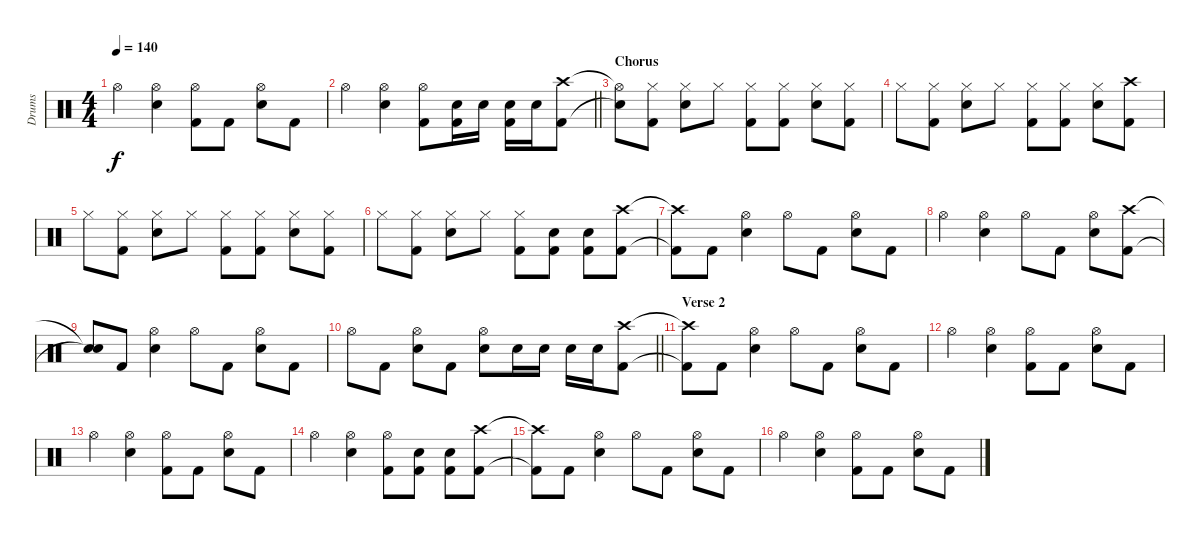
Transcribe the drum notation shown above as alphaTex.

\track ("Drums" "Drums") {instrument percussion}
\staff {score}
\articulation defaults
\ts (4 4)
\tempo 140
\clef neutral
\ks c "Hi-Hat (open)".4{dy f}
("Hi-Hat (open)" "Electric Snare (hit)").4 ("Hi-Hat (open)" "Kick (hit) 2").8 "Kick (hit) 2".8 ("Hi-Hat (open)" "Electric Snare (hit)").8 "Kick (hit) 2".8 |
\barLineRight lightlight "Hi-Hat (open)".4
("Hi-Hat (open)" "Electric Snare (hit)").4 ("Hi-Hat (open)" "Kick (hit) 2").8 ("Electric Snare (hit)" "Kick (hit) 2").16 "Electric Snare (hit)".16 ("Electric Snare (hit)" "Kick (hit) 2").16 "Electric Snare (hit)".16 ("Crash high (hit)" "Kick (hit) 2").8 |
\section ("" "Chorus")
("Hi-Hat (open)"{t} "Snare (hit)"{t}).8 ("Hi-Hat (closed)" "Kick (hit) 2").8 ("Hi-Hat (closed)" "Electric Snare (hit)").8 "Hi-Hat (closed)".8 ("Hi-Hat (closed)" "Kick (hit) 2").8 ("Hi-Hat (closed)" "Kick (hit) 2").8 ("Hi-Hat (closed)" "Electric Snare (hit)").8 ("Hi-Hat (closed)" "Kick (hit) 2").8 |
"Hi-Hat (closed)".8 ("Hi-Hat (closed)" "Kick (hit) 2").8 ("Hi-Hat (closed)" "Electric Snare (hit)").8 "Hi-Hat (closed)".8 ("Hi-Hat (closed)" "Kick (hit) 2").8 ("Hi-Hat (closed)" "Kick (hit) 2").8 ("Hi-Hat (closed)" "Electric Snare (hit)").8 ("Crash high (hit)" "Kick (hit) 2").8 |
"Hi-Hat (closed)".8 ("Hi-Hat (closed)" "Kick (hit) 2").8 ("Hi-Hat (closed)" "Electric Snare (hit)").8 "Hi-Hat (closed)".8 ("Hi-Hat (closed)" "Kick (hit) 2").8 ("Hi-Hat (closed)" "Kick (hit) 2").8 ("Hi-Hat (closed)" "Electric Snare (hit)").8 ("Hi-Hat (closed)" "Kick (hit) 2").8 |
"Hi-Hat (closed)".8 ("Hi-Hat (closed)" "Kick (hit) 2").8 ("Hi-Hat (closed)" "Electric Snare (hit)").8 "Hi-Hat (closed)".8 ("Hi-Hat (closed)" "Kick (hit) 2").8 ("Electric Snare (hit)" "Kick (hit) 2").8 ("Electric Snare (hit)" "Kick (hit) 2").8 ("Crash high (hit)" "Kick (hit) 2").8 |
("Crash high (hit)"{t} "Kick (hit) 2"{t}).8 "Kick (hit) 2".8 ("Hi-Hat (open)" "Electric Snare (hit)").4 "Hi-Hat (open)".8 "Kick (hit) 2".8 ("Hi-Hat (open)" "Electric Snare (hit)").8 "Kick (hit) 2".8 |
"Hi-Hat (open)".4 ("Hi-Hat (open)" "Electric Snare (hit)").4 "Hi-Hat (open)".8 "Kick (hit) 2".8 ("Hi-Hat (open)" "Electric Snare (hit)").8 ("Crash high (hit)" "Kick (hit) 2").8 |
("Snare (hit)"{t} "Snare (hit)"{t}).8 "Kick (hit) 2".8 ("Hi-Hat (open)" "Electric Snare (hit)").4 "Hi-Hat (open)".8 "Kick (hit) 2".8 ("Hi-Hat (open)" "Electric Snare (hit)").8 "Kick (hit) 2".8 |
\barLineRight lightlight "Hi-Hat (open)".8 "Kick (hit) 2".8
("Hi-Hat (open)" "Electric Snare (hit)").8 "Kick (hit) 2".8 ("Hi-Hat (open)" "Electric Snare (hit)").8 "Electric Snare (hit)".16 "Electric Snare (hit)".16 "Electric Snare (hit)".16 "Electric Snare (hit)".16 ("Crash high (hit)" "Kick (hit) 2").8 |
\section ("" "Verse 2")
("Crash high (hit)"{t} "Kick (hit) 2"{t}).8 "Kick (hit) 2".8 ("Hi-Hat (open)" "Electric Snare (hit)").4 "Hi-Hat (open)".8 "Kick (hit) 2".8 ("Hi-Hat (open)" "Electric Snare (hit)").8 "Kick (hit) 2".8 |
"Hi-Hat (open)".4 ("Hi-Hat (open)" "Electric Snare (hit)").4 ("Hi-Hat (open)" "Kick (hit) 2").8 "Kick (hit) 2".8 ("Hi-Hat (open)" "Electric Snare (hit)").8 "Kick (hit) 2".8 |
"Hi-Hat (open)".4 ("Hi-Hat (open)" "Electric Snare (hit)").4 ("Hi-Hat (open)" "Kick (hit) 2").8 "Kick (hit) 2".8 ("Hi-Hat (open)" "Electric Snare (hit)").8 "Kick (hit) 2".8 |
"Hi-Hat (open)".4 ("Hi-Hat (open)" "Electric Snare (hit)").4 ("Hi-Hat (open)" "Kick (hit) 2").8 ("Electric Snare (hit)" "Kick (hit) 2").8 ("Electric Snare (hit)" "Kick (hit) 2").8 ("Crash high (hit)" "Kick (hit) 2").8 |
("Crash high (hit)"{t} "Kick (hit) 2"{t}).8 "Kick (hit) 2".8 ("Hi-Hat (open)" "Electric Snare (hit)").4 "Hi-Hat (open)".8 "Kick (hit) 2".8 ("Hi-Hat (open)" "Electric Snare (hit)").8 "Kick (hit) 2".8 |
"Hi-Hat (open)".4 ("Hi-Hat (open)" "Electric Snare (hit)").4 ("Hi-Hat (open)" "Kick (hit) 2").8 "Kick (hit) 2".8 ("Hi-Hat (open)" "Electric Snare (hit)").8 "Kick (hit) 2".8
